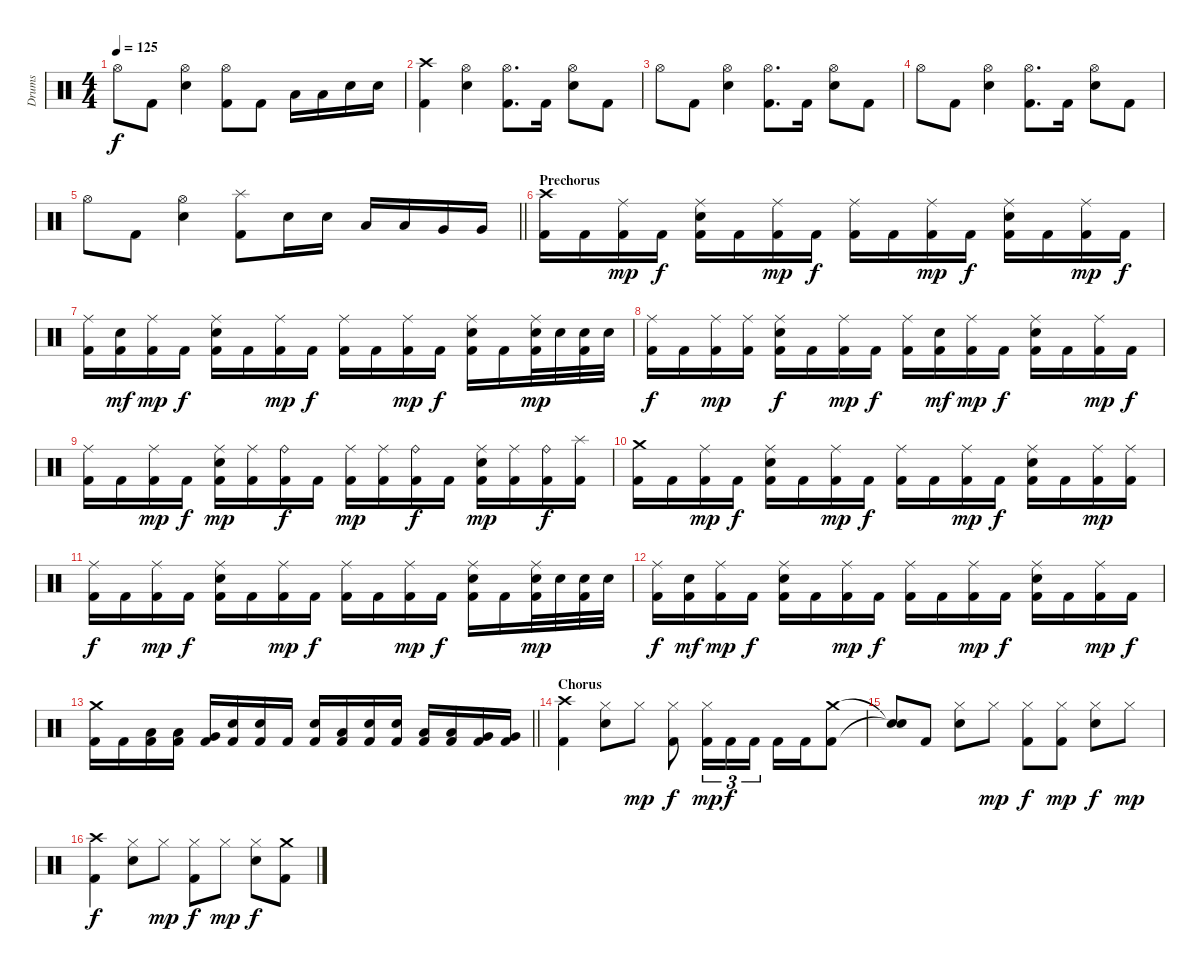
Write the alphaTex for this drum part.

\track ("Drums" "Drums") {instrument percussion}
\staff {score}
\articulation defaults
\ts (4 4)
\tempo 125
\clef neutral
\ks c "Hi-Hat (open)".8{dy f} "Kick (hit) 2".8
("Hi-Hat (open)" "Electric Snare (hit)").4 ("Kick (hit) 2" "Hi-Hat (open)").8 "Kick (hit) 2".8 "Low Tom (hit)".16 "Low Tom (hit)".16 "Electric Snare (hit)".16 "Electric Snare (hit)".16 |
("Kick (hit) 2" "Crash high (hit)").4 ("Hi-Hat (open)" "Electric Snare (hit)").4 ("Kick (hit) 2" "Hi-Hat (open)").8{d} "Kick (hit) 2".16 ("Hi-Hat (open)" "Electric Snare (hit)").8 "Kick (hit) 2".8 |
"Hi-Hat (open)".8 "Kick (hit) 2".8 ("Hi-Hat (open)" "Electric Snare (hit)").4 ("Kick (hit) 2" "Hi-Hat (open)").8{d} "Kick (hit) 2".16 ("Hi-Hat (open)" "Electric Snare (hit)").8 "Kick (hit) 2".8 |
"Hi-Hat (open)".8 "Kick (hit) 2".8 ("Hi-Hat (open)" "Electric Snare (hit)").4 ("Kick (hit) 2" "Hi-Hat (open)").8{d} "Kick (hit) 2".16 ("Hi-Hat (open)" "Electric Snare (hit)").8 "Kick (hit) 2".8 |
\barLineRight lightlight "Hi-Hat (open)".8 "Kick (hit) 2".8
("Hi-Hat (open)" "Electric Snare (hit)").4 ("Kick (hit) 2" "Splash (hit)").8 "Electric Snare (hit)".16 "Electric Snare (hit)".16 "Low Tom (hit)".16 "Low Tom (hit)".16 "Very Low Tom (hit)".16 "Very Low Tom (hit)".16 |
\section ("" "Prechorus")
("Kick (hit) 2" "Crash high (hit)").16 "Kick (hit) 2".16 ("Kick (hit) 2" "Ride (middle)").16{dy mp} "Kick (hit) 2".16{dy f} ("Kick (hit) 2" "Ride (middle)" "Electric Snare (hit)").16 "Kick (hit) 2".16 ("Kick (hit) 2" "Ride (middle)").16{dy mp} "Kick (hit) 2".16{dy f} ("Kick (hit) 2" "Ride (middle)").16 "Kick (hit) 2".16 ("Kick (hit) 2" "Ride (middle)").16{dy mp} "Kick (hit) 2".16{dy f} ("Kick (hit) 2" "Ride (middle)" "Electric Snare (hit)").16 "Kick (hit) 2".16 ("Kick (hit) 2" "Ride (middle)").16{dy mp} "Kick (hit) 2".16{dy f} |
("Kick (hit) 2" "Ride (middle)").16 ("Kick (hit) 2" "Electric Snare (hit)").16{dy mf} ("Kick (hit) 2" "Ride (middle)").16{dy mp} "Kick (hit) 2".16{dy f} ("Kick (hit) 2" "Ride (middle)" "Electric Snare (hit)").16 "Kick (hit) 2".16 ("Kick (hit) 2" "Ride (middle)").16{dy mp} "Kick (hit) 2".16{dy f} ("Kick (hit) 2" "Ride (middle)").16 "Kick (hit) 2".16 ("Kick (hit) 2" "Ride (middle)").16{dy mp} "Kick (hit) 2".16{dy f} ("Kick (hit) 2" "Ride (middle)" "Electric Snare (hit)").16 "Kick (hit) 2".16 ("Kick (hit) 2" "Ride (middle)" "Electric Snare (hit)").32{dy mp} "Electric Snare (hit)".32 ("Kick (hit) 2" "Electric Snare (hit)").32 "Electric Snare (hit)".32 |
("Kick (hit) 2" "Ride (middle)").16{dy f} "Kick (hit) 2".16 ("Kick (hit) 2" "Ride (middle)").16{dy mp} ("Kick (hit) 2" "Ride (middle)").16 ("Kick (hit) 2" "Ride (middle)" "Electric Snare (hit)").16{dy f} "Kick (hit) 2".16 ("Kick (hit) 2" "Ride (middle)").16{dy mp} "Kick (hit) 2".16{dy f} ("Kick (hit) 2" "Ride (middle)").16 ("Kick (hit) 2" "Electric Snare (hit)").16{dy mf} ("Kick (hit) 2" "Ride (middle)").16{dy mp} "Kick (hit) 2".16{dy f} ("Kick (hit) 2" "Ride (middle)" "Electric Snare (hit)").16 "Kick (hit) 2".16 ("Kick (hit) 2" "Ride (middle)").16{dy mp} "Kick (hit) 2".16{dy f} |
("Kick (hit) 2" "Ride (middle)").16 "Kick (hit) 2".16 ("Kick (hit) 2" "Ride (middle)").16{dy mp} "Kick (hit) 2".16{dy f} ("Kick (hit) 2" "Ride (middle)" "Electric Snare (hit)").16{dy mp} ("Kick (hit) 2" "Ride (middle)").16 ("Kick (hit) 2" "Ride (bell)").16{dy f} "Kick (hit) 2".16 ("Kick (hit) 2" "Ride (middle)").16{dy mp} ("Kick (hit) 2" "Ride (middle)").16 ("Kick (hit) 2" "Ride (bell)").16{dy f} "Kick (hit) 2".16 ("Kick (hit) 2" "Ride (middle)" "Electric Snare (hit)").16{dy mp} ("Kick (hit) 2" "Ride (middle)").16 ("Kick (hit) 2" "Ride (bell)").16{dy f} ("Kick (hit) 2" "Splash (hit)").16 |
("Kick (hit) 2" "Crash medium (hit)").16 "Kick (hit) 2".16 ("Kick (hit) 2" "Ride (middle)").16{dy mp} "Kick (hit) 2".16{dy f} ("Kick (hit) 2" "Ride (middle)" "Electric Snare (hit)").16 "Kick (hit) 2".16 ("Kick (hit) 2" "Ride (middle)").16{dy mp} "Kick (hit) 2".16{dy f} ("Kick (hit) 2" "Ride (middle)").16 "Kick (hit) 2".16 ("Kick (hit) 2" "Ride (middle)").16{dy mp} "Kick (hit) 2".16{dy f} ("Kick (hit) 2" "Ride (middle)" "Electric Snare (hit)").16 "Kick (hit) 2".16 ("Kick (hit) 2" "Ride (middle)").16{dy mp} ("Kick (hit) 2" "Ride (middle)").16 |
("Kick (hit) 2" "Ride (middle)").16{dy f} "Kick (hit) 2".16 ("Kick (hit) 2" "Ride (middle)").16{dy mp} "Kick (hit) 2".16{dy f} ("Kick (hit) 2" "Ride (middle)" "Electric Snare (hit)").16 "Kick (hit) 2".16 ("Kick (hit) 2" "Ride (middle)").16{dy mp} "Kick (hit) 2".16{dy f} ("Kick (hit) 2" "Ride (middle)").16 "Kick (hit) 2".16 ("Kick (hit) 2" "Ride (middle)").16{dy mp} "Kick (hit) 2".16{dy f} ("Kick (hit) 2" "Ride (middle)" "Electric Snare (hit)").16 "Kick (hit) 2".16 ("Kick (hit) 2" "Ride (middle)" "Electric Snare (hit)").32{dy mp} "Electric Snare (hit)".32 ("Kick (hit) 2" "Electric Snare (hit)").32 "Electric Snare (hit)".32 |
("Kick (hit) 2" "Ride (middle)").16{dy f} ("Kick (hit) 2" "Electric Snare (hit)").16{dy mf} ("Kick (hit) 2" "Ride (middle)").16{dy mp} "Kick (hit) 2".16{dy f} ("Kick (hit) 2" "Ride (middle)" "Electric Snare (hit)").16 "Kick (hit) 2".16 ("Kick (hit) 2" "Ride (middle)").16{dy mp} "Kick (hit) 2".16{dy f} ("Kick (hit) 2" "Ride (middle)").16 "Kick (hit) 2".16 ("Kick (hit) 2" "Ride (middle)").16{dy mp} "Kick (hit) 2".16{dy f} ("Kick (hit) 2" "Ride (middle)" "Electric Snare (hit)").16 "Kick (hit) 2".16 ("Kick (hit) 2" "Ride (middle)").16{dy mp} "Kick (hit) 2".16{dy f} |
\barLineRight lightlight
("Kick (hit) 2" "Crash medium (hit)").16 "Kick (hit) 2".16 ("Kick (hit) 2" "Low Tom (hit)").16 ("Kick (hit) 2" "Low Tom (hit)").16 ("Kick (hit) 2" "Very Low Tom (hit)").16 ("Kick (hit) 2" "Electric Snare (hit)").16 ("Kick (hit) 2" "Electric Snare (hit)").16 "Kick (hit) 2".16 ("Kick (hit) 2" "Electric Snare (hit)").16 ("Kick (hit) 2" "Low Tom (hit)").16 ("Kick (hit) 2" "Electric Snare (hit)").16 ("Kick (hit) 2" "Electric Snare (hit)").16 ("Kick (hit) 2" "Low Tom (hit)").16 ("Kick (hit) 2" "Low Tom (hit)").16 ("Kick (hit) 2" "Very Low Tom (hit)").16 ("Kick (hit) 2" "Very Low Tom (hit)").16 |
\section ("" "Chorus")
("Kick (hit) 2" "Crash high (hit)").4 ("Hi-Hat (closed)" "Electric Snare (hit)").8 "Hi-Hat (closed)".8{dy mp} ("Kick (hit) 2" "Hi-Hat (closed)").8{dy f} ("Kick (hit) 2" "Hi-Hat (closed)").16{tu (3 2) dy mp} "Kick (hit) 2".16{tu (3 2) dy f} "Kick (hit) 2".16{tu (3 2)} "Kick (hit) 2".16 "Kick (hit) 2".16 ("Kick (hit) 2" "Crash medium (hit)").8 |
("Snare (hit)"{t} "Snare (hit)"{t}).8 "Kick (hit) 2".8 ("Hi-Hat (closed)" "Electric Snare (hit)").8 "Hi-Hat (closed)".8{dy mp} ("Kick (hit) 2" "Hi-Hat (closed)").8{dy f} ("Kick (hit) 2" "Hi-Hat (closed)").8{dy mp} ("Hi-Hat (closed)" "Electric Snare (hit)").8{dy f} "Hi-Hat (closed)".8{dy mp} |
("Kick (hit) 2" "Crash high (hit)").4{dy f} ("Hi-Hat (closed)" "Electric Snare (hit)").8 "Hi-Hat (closed)".8{dy mp} ("Kick (hit) 2" "Hi-Hat (closed)").8{dy f} "Hi-Hat (closed)".8{dy mp} ("Hi-Hat (closed)" "Electric Snare (hit)").8{dy f} ("Kick (hit) 2" "Crash medium (hit)").8
